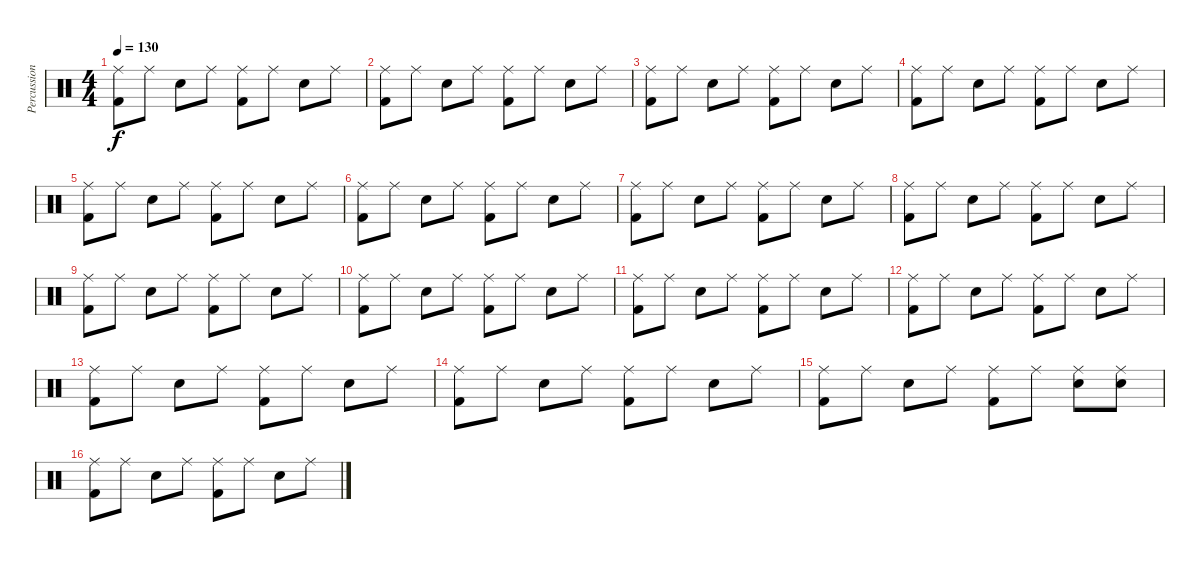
\track ("Percussion" "Percussion") {instrument percussion}
\staff {score}
\articulation defaults
\ts (4 4)
\tempo 130
\clef neutral
\ks c
("Ride (middle)" "Kick (hit) 2").8{dy f} "Ride (middle)".8 "Snare (hit) 2".8 "Ride (middle)".8 ("Ride (middle)" "Kick (hit) 2").8 "Ride (middle)".8 "Snare (hit) 2".8 "Ride (middle)".8 |
("Ride (middle)" "Kick (hit) 2").8 "Ride (middle)".8 "Snare (hit) 2".8 "Ride (middle)".8 ("Ride (middle)" "Kick (hit) 2").8 "Ride (middle)".8 "Snare (hit) 2".8 "Ride (middle)".8 |
("Ride (middle)" "Kick (hit) 2").8 "Ride (middle)".8 "Snare (hit) 2".8 "Ride (middle)".8 ("Ride (middle)" "Kick (hit) 2").8 "Ride (middle)".8 "Snare (hit) 2".8 "Ride (middle)".8 |
("Ride (middle)" "Kick (hit) 2").8 "Ride (middle)".8 "Snare (hit) 2".8 "Ride (middle)".8 ("Ride (middle)" "Kick (hit) 2").8 "Ride (middle)".8 "Snare (hit) 2".8 "Ride (middle)".8 |
("Ride (middle)" "Kick (hit) 2").8 "Ride (middle)".8 "Snare (hit) 2".8 "Ride (middle)".8 ("Ride (middle)" "Kick (hit) 2").8 "Ride (middle)".8 "Snare (hit) 2".8 "Ride (middle)".8 |
("Ride (middle)" "Kick (hit) 2").8 "Ride (middle)".8 "Snare (hit) 2".8 "Ride (middle)".8 ("Ride (middle)" "Kick (hit) 2").8 "Ride (middle)".8 "Snare (hit) 2".8 "Ride (middle)".8 |
("Ride (middle)" "Kick (hit) 2").8 "Ride (middle)".8 "Snare (hit) 2".8 "Ride (middle)".8 ("Ride (middle)" "Kick (hit) 2").8 "Ride (middle)".8 "Snare (hit) 2".8 "Ride (middle)".8 |
("Ride (middle)" "Kick (hit) 2").8 "Ride (middle)".8 "Snare (hit) 2".8 "Ride (middle)".8 ("Ride (middle)" "Kick (hit) 2").8 "Ride (middle)".8 "Snare (hit) 2".8 "Ride (middle)".8 |
("Ride (middle)" "Kick (hit) 2").8 "Ride (middle)".8 "Snare (hit) 2".8 "Ride (middle)".8 ("Ride (middle)" "Kick (hit) 2").8 "Ride (middle)".8 "Snare (hit) 2".8 "Ride (middle)".8 |
("Ride (middle)" "Kick (hit) 2").8 "Ride (middle)".8 "Snare (hit) 2".8 "Ride (middle)".8 ("Ride (middle)" "Kick (hit) 2").8 "Ride (middle)".8 "Snare (hit) 2".8 "Ride (middle)".8 |
("Ride (middle)" "Kick (hit) 2").8 "Ride (middle)".8 "Snare (hit) 2".8 "Ride (middle)".8 ("Ride (middle)" "Kick (hit) 2").8 "Ride (middle)".8 "Snare (hit) 2".8 "Ride (middle)".8 |
("Ride (middle)" "Kick (hit) 2").8 "Ride (middle)".8 "Snare (hit) 2".8 "Ride (middle)".8 ("Ride (middle)" "Kick (hit) 2").8 "Ride (middle)".8 "Snare (hit) 2".8 "Ride (middle)".8 |
("Ride (middle)" "Kick (hit) 2").8 "Ride (middle)".8 "Snare (hit) 2".8 "Ride (middle)".8 ("Ride (middle)" "Kick (hit) 2").8 "Ride (middle)".8 "Snare (hit) 2".8 "Ride (middle)".8 |
("Ride (middle)" "Kick (hit) 2").8 "Ride (middle)".8 "Snare (hit) 2".8 "Ride (middle)".8 ("Ride (middle)" "Kick (hit) 2").8 "Ride (middle)".8 "Snare (hit) 2".8 "Ride (middle)".8 |
("Ride (middle)" "Kick (hit) 2").8 "Ride (middle)".8 "Snare (hit) 2".8 "Ride (middle)".8 ("Ride (middle)" "Kick (hit) 2").8 "Ride (middle)".8 ("Ride (middle)" "Snare (hit) 2").8 ("Ride (middle)" "Snare (hit) 2").8 |
("Ride (middle)" "Kick (hit) 2").8 "Ride (middle)".8 "Snare (hit) 2".8 "Ride (middle)".8 ("Ride (middle)" "Kick (hit) 2").8 "Ride (middle)".8 "Snare (hit) 2".8 "Ride (middle)".8
